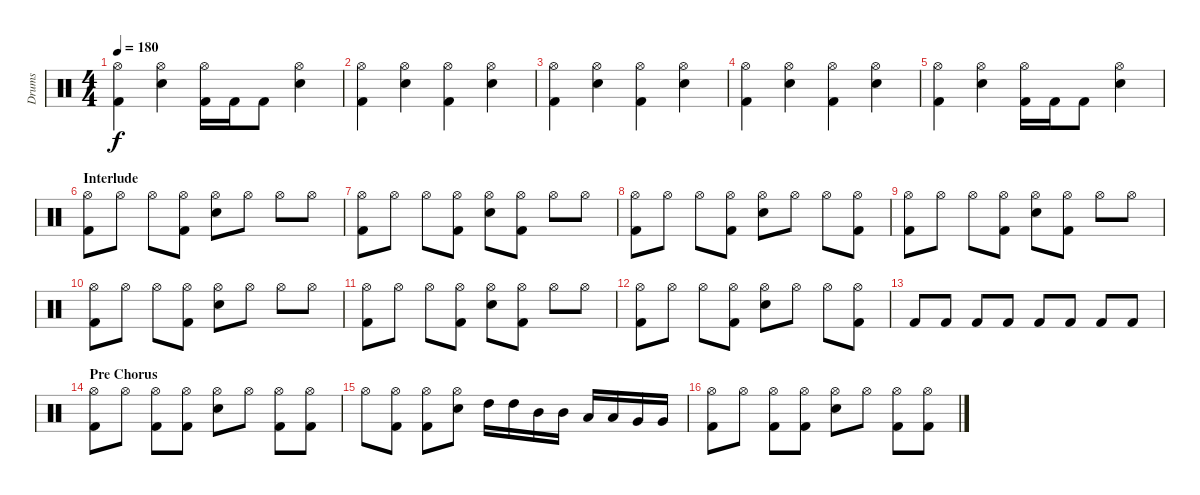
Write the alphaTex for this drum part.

\track ("Drums" "Drums") {instrument percussion}
\staff {score}
\articulation defaults
\ts (4 4)
\tempo 180
\clef neutral
\ks c
("Hi-Hat (open)" "Kick (hit) 2").4{dy f} ("Hi-Hat (open)" "Electric Snare (hit)").4 ("Hi-Hat (open)" "Kick (hit) 2").16 "Kick (hit) 2".16 "Kick (hit) 2".8 ("Hi-Hat (open)" "Electric Snare (hit)").4 |
("Hi-Hat (open)" "Kick (hit) 2").4 ("Hi-Hat (open)" "Electric Snare (hit)").4 ("Hi-Hat (open)" "Kick (hit) 2").4 ("Hi-Hat (open)" "Electric Snare (hit)").4 |
("Hi-Hat (open)" "Kick (hit) 2").4 ("Hi-Hat (open)" "Electric Snare (hit)").4 ("Hi-Hat (open)" "Kick (hit) 2").4 ("Hi-Hat (open)" "Electric Snare (hit)").4 |
("Hi-Hat (open)" "Kick (hit) 2").4 ("Hi-Hat (open)" "Electric Snare (hit)").4 ("Hi-Hat (open)" "Kick (hit) 2").4 ("Hi-Hat (open)" "Electric Snare (hit)").4 |
("Hi-Hat (open)" "Kick (hit) 2").4 ("Hi-Hat (open)" "Electric Snare (hit)").4 ("Hi-Hat (open)" "Kick (hit) 2").16 "Kick (hit) 2".16 "Kick (hit) 2".8 ("Hi-Hat (open)" "Electric Snare (hit)").4 |
\section ("" "Interlude")
("Hi-Hat (open)" "Kick (hit) 2").8 "Hi-Hat (open)".8 "Hi-Hat (open)".8 ("Hi-Hat (open)" "Kick (hit) 2").8 ("Hi-Hat (open)" "Electric Snare (hit)").8 "Hi-Hat (open)".8 "Hi-Hat (open)".8 "Hi-Hat (open)".8 |
("Hi-Hat (open)" "Kick (hit) 2").8 "Hi-Hat (open)".8 "Hi-Hat (open)".8 ("Hi-Hat (open)" "Kick (hit) 2").8 ("Hi-Hat (open)" "Electric Snare (hit)").8 ("Hi-Hat (open)" "Kick (hit) 2").8 "Hi-Hat (open)".8 "Hi-Hat (open)".8 |
("Hi-Hat (open)" "Kick (hit) 2").8 "Hi-Hat (open)".8 "Hi-Hat (open)".8 ("Hi-Hat (open)" "Kick (hit) 2").8 ("Hi-Hat (open)" "Electric Snare (hit)").8 "Hi-Hat (open)".8 "Hi-Hat (open)".8 ("Hi-Hat (open)" "Kick (hit) 2").8 |
("Hi-Hat (open)" "Kick (hit) 2").8 "Hi-Hat (open)".8 "Hi-Hat (open)".8 ("Hi-Hat (open)" "Kick (hit) 2").8 ("Hi-Hat (open)" "Electric Snare (hit)").8 ("Hi-Hat (open)" "Kick (hit) 2").8 "Hi-Hat (open)".8 "Hi-Hat (open)".8 |
("Hi-Hat (open)" "Kick (hit) 2").8 "Hi-Hat (open)".8 "Hi-Hat (open)".8 ("Hi-Hat (open)" "Kick (hit) 2").8 ("Hi-Hat (open)" "Electric Snare (hit)").8 "Hi-Hat (open)".8 "Hi-Hat (open)".8 "Hi-Hat (open)".8 |
("Hi-Hat (open)" "Kick (hit) 2").8 "Hi-Hat (open)".8 "Hi-Hat (open)".8 ("Hi-Hat (open)" "Kick (hit) 2").8 ("Hi-Hat (open)" "Electric Snare (hit)").8 ("Hi-Hat (open)" "Kick (hit) 2").8 "Hi-Hat (open)".8 "Hi-Hat (open)".8 |
("Hi-Hat (open)" "Kick (hit) 2").8 "Hi-Hat (open)".8 "Hi-Hat (open)".8 ("Hi-Hat (open)" "Kick (hit) 2").8 ("Hi-Hat (open)" "Electric Snare (hit)").8 "Hi-Hat (open)".8 "Hi-Hat (open)".8 ("Hi-Hat (open)" "Kick (hit) 2").8 |
"Kick (hit) 2".8 "Kick (hit) 2".8 "Kick (hit) 2".8 "Kick (hit) 2".8 "Kick (hit) 2".8 "Kick (hit) 2".8 "Kick (hit) 2".8 "Kick (hit) 2".8 |
\section ("" "Pre Chorus")
("Hi-Hat (open)" "Kick (hit) 2").8 "Hi-Hat (open)".8 ("Hi-Hat (open)" "Kick (hit) 2").8 ("Hi-Hat (open)" "Kick (hit) 2").8 ("Hi-Hat (open)" "Electric Snare (hit)").8 "Hi-Hat (open)".8 ("Hi-Hat (open)" "Kick (hit) 2").8 ("Hi-Hat (open)" "Kick (hit) 2").8 |
"Hi-Hat (open)".8 ("Hi-Hat (open)" "Kick (hit) 2").8 ("Hi-Hat (open)" "Kick (hit) 2").8 ("Hi-Hat (open)" "Electric Snare (hit)").8 "High Tom (hit)".16 "High Tom (hit)".16 "Mid Tom (hit)".16 "Mid Tom (hit)".16 "Low Tom (hit)".16 "Low Tom (hit)".16 "Very Low Tom (hit)".16 "Very Low Tom (hit)".16 |
("Hi-Hat (open)" "Kick (hit) 2").8 "Hi-Hat (open)".8 ("Hi-Hat (open)" "Kick (hit) 2").8 ("Hi-Hat (open)" "Kick (hit) 2").8 ("Hi-Hat (open)" "Electric Snare (hit)").8 "Hi-Hat (open)".8 ("Hi-Hat (open)" "Kick (hit) 2").8 ("Hi-Hat (open)" "Kick (hit) 2").8
